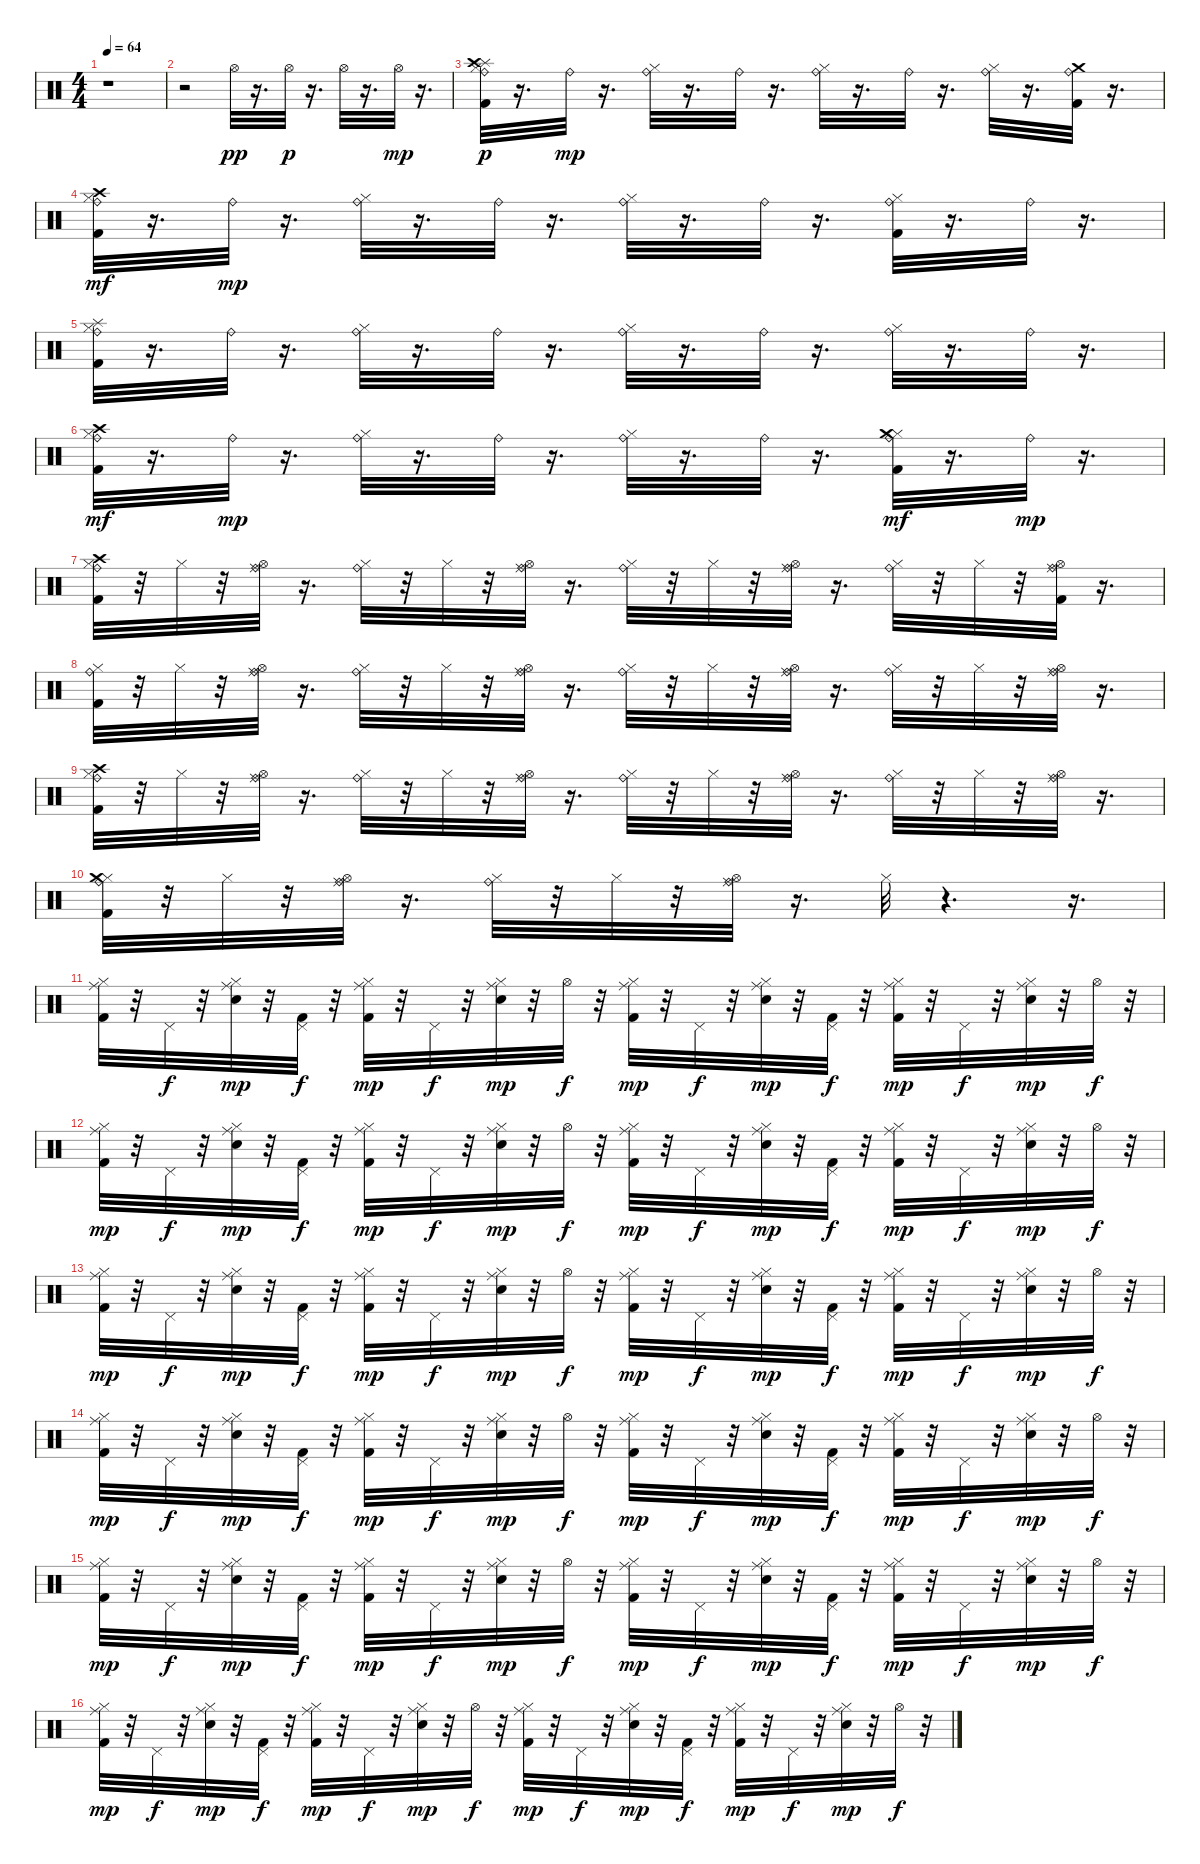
\track "" {instrument percussion}
\staff {score}
\articulation defaults
\ts (4 4)
\tempo 64
\clef neutral
\ks c
r.1{dy pp} |
r.2 "Hi-Hat (open)".32 r.16{d} "Hi-Hat (open)".32{dy p} r.16{d} "Hi-Hat (open)".32 r.16{d} "Hi-Hat (open)".32{dy mp} r.16{d} |
("Ride (bell)" "Splash (hit)" "Kick (hit) 2" "Crash high (hit)" "Hi-Hat (closed)").32{dy p} r.16{d} "Ride (bell)".32{dy mp} r.16{d} ("Hi-Hat (closed)" "Ride (bell)").32 r.16{d} "Ride (bell)".32 r.16{d} ("Hi-Hat (closed)" "Ride (bell)").32 r.16{d} "Ride (bell)".32 r.16{d} ("Hi-Hat (closed)" "Ride (bell)").32 r.16{d} ("Crash medium (hit)" "Ride (bell)" "Kick (hit) 2").32 r.16{d} |
("Hi-Hat (closed)" "Ride (bell)" "Crash high (hit)" "Kick (hit) 2").32{dy mf} r.16{d} "Ride (bell)".32{dy mp} r.16{d} ("Hi-Hat (closed)" "Ride (bell)").32 r.16{d} "Ride (bell)".32 r.16{d} ("Hi-Hat (closed)" "Ride (bell)").32 r.16{d} "Ride (bell)".32 r.16{d} ("Hi-Hat (closed)" "Ride (bell)" "Kick (hit) 2").32 r.16{d} "Ride (bell)".32 r.16{d} |
("Hi-Hat (closed)" "Ride (bell)" "Splash (hit)" "Kick (hit) 2").32 r.16{d} "Ride (bell)".32 r.16{d} ("Hi-Hat (closed)" "Ride (bell)").32 r.16{d} "Ride (bell)".32 r.16{d} ("Hi-Hat (closed)" "Ride (bell)").32 r.16{d} "Ride (bell)".32 r.16{d} ("Hi-Hat (closed)" "Ride (bell)").32 r.16{d} "Ride (bell)".32 r.16{d} |
("Hi-Hat (closed)" "Kick (hit) 2" "Ride (bell)" "Crash high (hit)").32{dy mf} r.16{d} "Ride (bell)".32{dy mp} r.16{d} ("Hi-Hat (closed)" "Ride (bell)").32 r.16{d} "Ride (bell)".32 r.16{d} ("Hi-Hat (closed)" "Ride (bell)").32 r.16{d} "Ride (bell)".32 r.16{d} ("Kick (hit) 2" "Hi-Hat (closed)" "Ride (bell)" "Crash medium (hit)").32{dy mf} r.16{d} "Ride (bell)".32{dy mp} r.16{d} |
("Hi-Hat (closed)" "Ride (bell)" "Kick (hit) 2" "Crash high (hit)").32 r.32 "Hi-Hat (closed)".32 r.32 ("Ride (middle)" "Hi-Hat (open)" "Ride (bell)").32 r.16{d} ("Hi-Hat (closed)" "Ride (bell)").32 r.32 "Hi-Hat (closed)".32 r.32 ("Ride (middle)" "Hi-Hat (open)" "Ride (bell)").32 r.16{d} ("Hi-Hat (closed)" "Ride (bell)").32 r.32 "Hi-Hat (closed)".32 r.32 ("Ride (middle)" "Hi-Hat (open)" "Ride (bell)").32 r.16{d} ("Hi-Hat (closed)" "Ride (bell)").32 r.32 "Hi-Hat (closed)".32 r.32 ("Ride (middle)" "Kick (hit) 2" "Hi-Hat (open)" "Ride (bell)").32 r.16{d} |
("Ride (bell)" "Hi-Hat (closed)" "Kick (hit) 2").32 r.32 "Hi-Hat (closed)".32 r.32 ("Ride (middle)" "Ride (bell)" "Hi-Hat (open)").32 r.16{d} ("Ride (bell)" "Hi-Hat (closed)").32 r.32 "Hi-Hat (closed)".32 r.32 ("Ride (middle)" "Ride (bell)" "Hi-Hat (open)").32 r.16{d} ("Ride (bell)" "Hi-Hat (closed)").32 r.32 "Hi-Hat (closed)".32 r.32 ("Ride (middle)" "Ride (bell)" "Hi-Hat (open)").32 r.16{d} ("Ride (bell)" "Hi-Hat (closed)").32 r.32 "Hi-Hat (closed)".32 r.32 ("Ride (middle)" "Ride (bell)" "Hi-Hat (open)").32 r.16{d} |
("Hi-Hat (closed)" "Ride (bell)" "Crash high (hit)" "Kick (hit) 2").32 r.32 "Hi-Hat (closed)".32 r.32 ("Ride (middle)" "Hi-Hat (open)" "Ride (bell)").32 r.16{d} ("Hi-Hat (closed)" "Ride (bell)").32 r.32 "Hi-Hat (closed)".32 r.32 ("Ride (middle)" "Hi-Hat (open)" "Ride (bell)").32 r.16{d} ("Hi-Hat (closed)" "Ride (bell)").32 r.32 "Hi-Hat (closed)".32 r.32 ("Ride (middle)" "Hi-Hat (open)" "Ride (bell)").32 r.16{d} ("Hi-Hat (closed)" "Ride (bell)").32 r.32 "Hi-Hat (closed)".32 r.32 ("Ride (middle)" "Hi-Hat (open)" "Ride (bell)").32 r.16{d} |
("Ride (bell)" "Hi-Hat (closed)" "Crash medium (hit)" "Kick (hit) 2").32 r.32 "Hi-Hat (closed)".32 r.32 ("Ride (middle)" "Ride (bell)" "Hi-Hat (open)").32 r.16{d} ("Ride (bell)" "Hi-Hat (closed)").32 r.32 "Hi-Hat (closed)".32 r.32 ("Ride (middle)" "Ride (bell)" "Hi-Hat (open)").32 r.16{d} "Hi-Hat (closed)".32 r.4{d} r.16{d} |
("Ride (middle)" "Hi-Hat (closed)" "Kick (hit) 2").32 r.32 "Pedal Hi-Hat (hit)".32{dy f} r.32 ("Ride (middle)" "Hi-Hat (closed)" "Snare (hit) 2").32{dy mp} r.32 ("Pedal Hi-Hat (hit)" "Kick (hit) 2").32{dy f} r.32 ("Ride (middle)" "Hi-Hat (closed)" "Kick (hit) 2").32{dy mp} r.32 "Pedal Hi-Hat (hit)".32{dy f} r.32 ("Snare (hit) 2" "Ride (middle)" "Hi-Hat (closed)").32{dy mp} r.32 "Hi-Hat (open)".32{dy f} r.32 ("Kick (hit) 2" "Hi-Hat (closed)" "Ride (middle)").32{dy mp} r.32 "Pedal Hi-Hat (hit)".32{dy f} r.32 ("Snare (hit) 2" "Hi-Hat (closed)" "Ride (middle)").32{dy mp} r.32 ("Kick (hit) 2" "Pedal Hi-Hat (hit)").32{dy f} r.32 ("Kick (hit) 2" "Hi-Hat (closed)" "Ride (middle)").32{dy mp} r.32 "Pedal Hi-Hat (hit)".32{dy f} r.32 ("Snare (hit) 2" "Hi-Hat (closed)" "Ride (middle)").32{dy mp} r.32 "Hi-Hat (open)".32{dy f} r.32 |
("Ride (middle)" "Hi-Hat (closed)" "Kick (hit) 2").32{dy mp} r.32 "Pedal Hi-Hat (hit)".32{dy f} r.32 ("Ride (middle)" "Hi-Hat (closed)" "Snare (hit) 2").32{dy mp} r.32 ("Pedal Hi-Hat (hit)" "Kick (hit) 2").32{dy f} r.32 ("Ride (middle)" "Hi-Hat (closed)" "Kick (hit) 2").32{dy mp} r.32 "Pedal Hi-Hat (hit)".32{dy f} r.32 ("Snare (hit) 2" "Ride (middle)" "Hi-Hat (closed)").32{dy mp} r.32 "Hi-Hat (open)".32{dy f} r.32 ("Kick (hit) 2" "Hi-Hat (closed)" "Ride (middle)").32{dy mp} r.32 "Pedal Hi-Hat (hit)".32{dy f} r.32 ("Snare (hit) 2" "Hi-Hat (closed)" "Ride (middle)").32{dy mp} r.32 ("Kick (hit) 2" "Pedal Hi-Hat (hit)").32{dy f} r.32 ("Kick (hit) 2" "Hi-Hat (closed)" "Ride (middle)").32{dy mp} r.32 "Pedal Hi-Hat (hit)".32{dy f} r.32 ("Snare (hit) 2" "Hi-Hat (closed)" "Ride (middle)").32{dy mp} r.32 "Hi-Hat (open)".32{dy f} r.32 |
("Ride (middle)" "Hi-Hat (closed)" "Kick (hit) 2").32{dy mp} r.32 "Pedal Hi-Hat (hit)".32{dy f} r.32 ("Ride (middle)" "Hi-Hat (closed)" "Snare (hit) 2").32{dy mp} r.32 ("Pedal Hi-Hat (hit)" "Kick (hit) 2").32{dy f} r.32 ("Ride (middle)" "Hi-Hat (closed)" "Kick (hit) 2").32{dy mp} r.32 "Pedal Hi-Hat (hit)".32{dy f} r.32 ("Snare (hit) 2" "Ride (middle)" "Hi-Hat (closed)").32{dy mp} r.32 "Hi-Hat (open)".32{dy f} r.32 ("Kick (hit) 2" "Hi-Hat (closed)" "Ride (middle)").32{dy mp} r.32 "Pedal Hi-Hat (hit)".32{dy f} r.32 ("Snare (hit) 2" "Hi-Hat (closed)" "Ride (middle)").32{dy mp} r.32 ("Kick (hit) 2" "Pedal Hi-Hat (hit)").32{dy f} r.32 ("Kick (hit) 2" "Hi-Hat (closed)" "Ride (middle)").32{dy mp} r.32 "Pedal Hi-Hat (hit)".32{dy f} r.32 ("Snare (hit) 2" "Hi-Hat (closed)" "Ride (middle)").32{dy mp} r.32 "Hi-Hat (open)".32{dy f} r.32 |
("Ride (middle)" "Hi-Hat (closed)" "Kick (hit) 2").32{dy mp} r.32 "Pedal Hi-Hat (hit)".32{dy f} r.32 ("Ride (middle)" "Hi-Hat (closed)" "Snare (hit) 2").32{dy mp} r.32 ("Pedal Hi-Hat (hit)" "Kick (hit) 2").32{dy f} r.32 ("Ride (middle)" "Hi-Hat (closed)" "Kick (hit) 2").32{dy mp} r.32 "Pedal Hi-Hat (hit)".32{dy f} r.32 ("Snare (hit) 2" "Ride (middle)" "Hi-Hat (closed)").32{dy mp} r.32 "Hi-Hat (open)".32{dy f} r.32 ("Kick (hit) 2" "Hi-Hat (closed)" "Ride (middle)").32{dy mp} r.32 "Pedal Hi-Hat (hit)".32{dy f} r.32 ("Snare (hit) 2" "Hi-Hat (closed)" "Ride (middle)").32{dy mp} r.32 ("Kick (hit) 2" "Pedal Hi-Hat (hit)").32{dy f} r.32 ("Kick (hit) 2" "Hi-Hat (closed)" "Ride (middle)").32{dy mp} r.32 "Pedal Hi-Hat (hit)".32{dy f} r.32 ("Snare (hit) 2" "Hi-Hat (closed)" "Ride (middle)").32{dy mp} r.32 "Hi-Hat (open)".32{dy f} r.32 |
("Ride (middle)" "Hi-Hat (closed)" "Kick (hit) 2").32{dy mp} r.32 "Pedal Hi-Hat (hit)".32{dy f} r.32 ("Ride (middle)" "Hi-Hat (closed)" "Snare (hit) 2").32{dy mp} r.32 ("Pedal Hi-Hat (hit)" "Kick (hit) 2").32{dy f} r.32 ("Ride (middle)" "Hi-Hat (closed)" "Kick (hit) 2").32{dy mp} r.32 "Pedal Hi-Hat (hit)".32{dy f} r.32 ("Snare (hit) 2" "Ride (middle)" "Hi-Hat (closed)").32{dy mp} r.32 "Hi-Hat (open)".32{dy f} r.32 ("Kick (hit) 2" "Hi-Hat (closed)" "Ride (middle)").32{dy mp} r.32 "Pedal Hi-Hat (hit)".32{dy f} r.32 ("Snare (hit) 2" "Hi-Hat (closed)" "Ride (middle)").32{dy mp} r.32 ("Kick (hit) 2" "Pedal Hi-Hat (hit)").32{dy f} r.32 ("Kick (hit) 2" "Hi-Hat (closed)" "Ride (middle)").32{dy mp} r.32 "Pedal Hi-Hat (hit)".32{dy f} r.32 ("Snare (hit) 2" "Hi-Hat (closed)" "Ride (middle)").32{dy mp} r.32 "Hi-Hat (open)".32{dy f} r.32 |
("Ride (middle)" "Hi-Hat (closed)" "Kick (hit) 2").32{dy mp} r.32 "Pedal Hi-Hat (hit)".32{dy f} r.32 ("Ride (middle)" "Hi-Hat (closed)" "Snare (hit) 2").32{dy mp} r.32 ("Pedal Hi-Hat (hit)" "Kick (hit) 2").32{dy f} r.32 ("Ride (middle)" "Hi-Hat (closed)" "Kick (hit) 2").32{dy mp} r.32 "Pedal Hi-Hat (hit)".32{dy f} r.32 ("Snare (hit) 2" "Ride (middle)" "Hi-Hat (closed)").32{dy mp} r.32 "Hi-Hat (open)".32{dy f} r.32 ("Kick (hit) 2" "Hi-Hat (closed)" "Ride (middle)").32{dy mp} r.32 "Pedal Hi-Hat (hit)".32{dy f} r.32 ("Snare (hit) 2" "Hi-Hat (closed)" "Ride (middle)").32{dy mp} r.32 ("Kick (hit) 2" "Pedal Hi-Hat (hit)").32{dy f} r.32 ("Kick (hit) 2" "Hi-Hat (closed)" "Ride (middle)").32{dy mp} r.32 "Pedal Hi-Hat (hit)".32{dy f} r.32 ("Snare (hit) 2" "Hi-Hat (closed)" "Ride (middle)").32{dy mp} r.32 "Hi-Hat (open)".32{dy f} r.32
